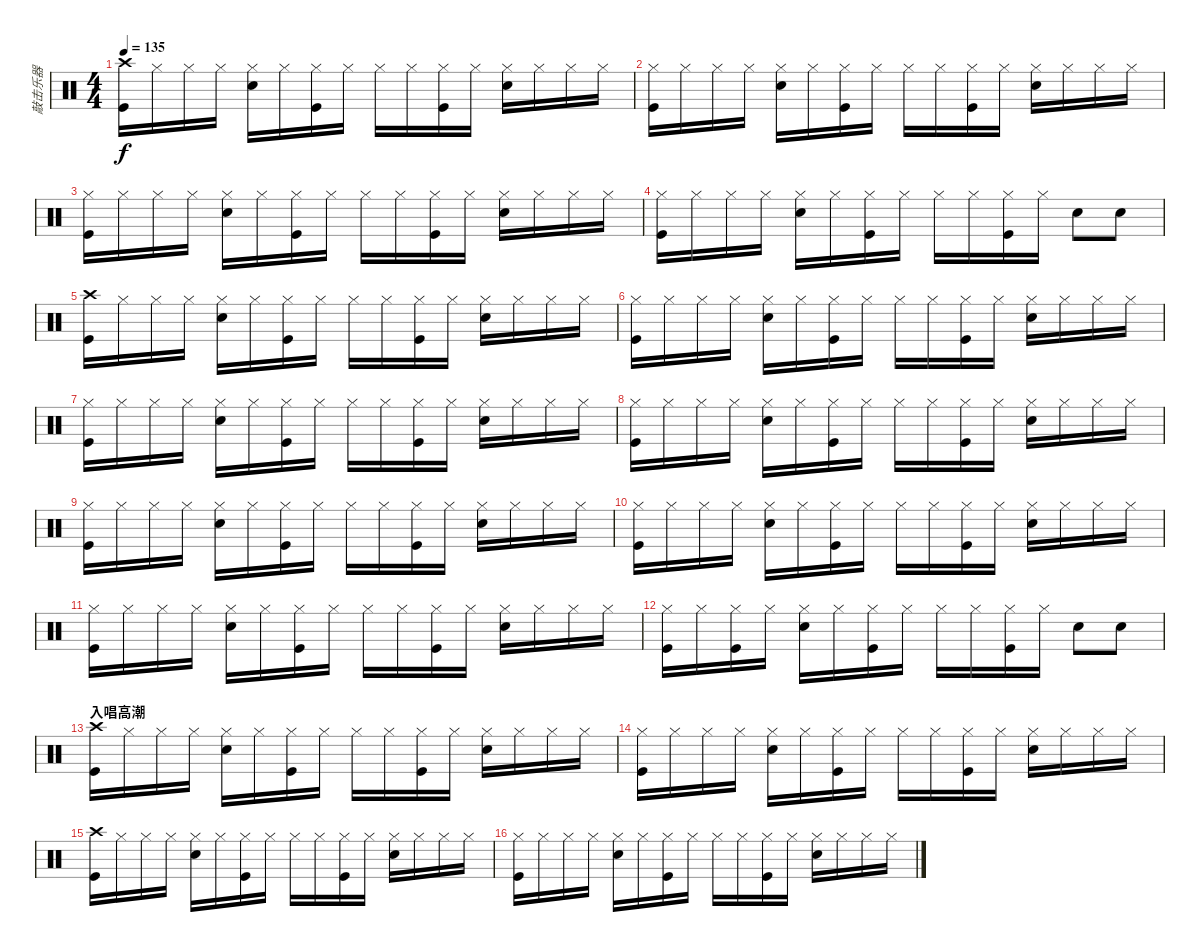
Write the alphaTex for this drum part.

\track ("敲击乐器" "敲击乐器") {instrument percussion}
\staff {score}
\articulation defaults
\ts (4 4)
\tempo 135
\clef neutral
\ks c
("Crash high (hit)" "Kick (hit)").16{dy f} "Hi-Hat (closed)".16 "Hi-Hat (closed)".16 "Hi-Hat (closed)".16 ("Hi-Hat (closed)" "Snare (hit) 2").16 "Hi-Hat (closed)".16 ("Hi-Hat (closed)" "Kick (hit)").16 "Hi-Hat (closed)".16 "Hi-Hat (closed)".16 "Hi-Hat (closed)".16 ("Hi-Hat (closed)" "Kick (hit)").16 "Hi-Hat (closed)".16 ("Hi-Hat (closed)" "Snare (hit) 2").16 "Hi-Hat (closed)".16 "Hi-Hat (closed)".16 "Hi-Hat (closed)".16 |
("Hi-Hat (closed)" "Kick (hit)").16 "Hi-Hat (closed)".16 "Hi-Hat (closed)".16 "Hi-Hat (closed)".16 ("Hi-Hat (closed)" "Snare (hit) 2").16 "Hi-Hat (closed)".16 ("Hi-Hat (closed)" "Kick (hit)").16 "Hi-Hat (closed)".16 "Hi-Hat (closed)".16 "Hi-Hat (closed)".16 ("Hi-Hat (closed)" "Kick (hit)").16 "Hi-Hat (closed)".16 ("Hi-Hat (closed)" "Snare (hit) 2").16 "Hi-Hat (closed)".16 "Hi-Hat (closed)".16 "Hi-Hat (closed)".16 |
("Hi-Hat (closed)" "Kick (hit)").16 "Hi-Hat (closed)".16 "Hi-Hat (closed)".16 "Hi-Hat (closed)".16 ("Hi-Hat (closed)" "Snare (hit) 2").16 "Hi-Hat (closed)".16 ("Hi-Hat (closed)" "Kick (hit)").16 "Hi-Hat (closed)".16 "Hi-Hat (closed)".16 "Hi-Hat (closed)".16 ("Hi-Hat (closed)" "Kick (hit)").16 "Hi-Hat (closed)".16 ("Hi-Hat (closed)" "Snare (hit) 2").16 "Hi-Hat (closed)".16 "Hi-Hat (closed)".16 "Hi-Hat (closed)".16 |
("Hi-Hat (closed)" "Kick (hit)").16 "Hi-Hat (closed)".16 "Hi-Hat (closed)".16 "Hi-Hat (closed)".16 ("Hi-Hat (closed)" "Snare (hit) 2").16 "Hi-Hat (closed)".16 ("Hi-Hat (closed)" "Kick (hit)").16 "Hi-Hat (closed)".16 "Hi-Hat (closed)".16 "Hi-Hat (closed)".16 ("Hi-Hat (closed)" "Kick (hit)").16 "Hi-Hat (closed)".16 "Snare (hit) 2".8 "Snare (hit) 2".8 |
("Crash high (hit)" "Kick (hit)").16 "Hi-Hat (closed)".16 "Hi-Hat (closed)".16 "Hi-Hat (closed)".16 ("Hi-Hat (closed)" "Snare (hit) 2").16 "Hi-Hat (closed)".16 ("Hi-Hat (closed)" "Kick (hit)").16 "Hi-Hat (closed)".16 "Hi-Hat (closed)".16 "Hi-Hat (closed)".16 ("Hi-Hat (closed)" "Kick (hit)").16 "Hi-Hat (closed)".16 ("Hi-Hat (closed)" "Snare (hit) 2").16 "Hi-Hat (closed)".16 "Hi-Hat (closed)".16 "Hi-Hat (closed)".16 |
("Hi-Hat (closed)" "Kick (hit)").16 "Hi-Hat (closed)".16 "Hi-Hat (closed)".16 "Hi-Hat (closed)".16 ("Hi-Hat (closed)" "Snare (hit) 2").16 "Hi-Hat (closed)".16 ("Hi-Hat (closed)" "Kick (hit)").16 "Hi-Hat (closed)".16 "Hi-Hat (closed)".16 "Hi-Hat (closed)".16 ("Hi-Hat (closed)" "Kick (hit)").16 "Hi-Hat (closed)".16 ("Hi-Hat (closed)" "Snare (hit) 2").16 "Hi-Hat (closed)".16 "Hi-Hat (closed)".16 "Hi-Hat (closed)".16 |
("Hi-Hat (closed)" "Kick (hit)").16 "Hi-Hat (closed)".16 "Hi-Hat (closed)".16 "Hi-Hat (closed)".16 ("Hi-Hat (closed)" "Snare (hit) 2").16 "Hi-Hat (closed)".16 ("Hi-Hat (closed)" "Kick (hit)").16 "Hi-Hat (closed)".16 "Hi-Hat (closed)".16 "Hi-Hat (closed)".16 ("Hi-Hat (closed)" "Kick (hit)").16 "Hi-Hat (closed)".16 ("Hi-Hat (closed)" "Snare (hit) 2").16 "Hi-Hat (closed)".16 "Hi-Hat (closed)".16 "Hi-Hat (closed)".16 |
("Hi-Hat (closed)" "Kick (hit)").16 "Hi-Hat (closed)".16 "Hi-Hat (closed)".16 "Hi-Hat (closed)".16 ("Hi-Hat (closed)" "Snare (hit) 2").16 "Hi-Hat (closed)".16 ("Hi-Hat (closed)" "Kick (hit)").16 "Hi-Hat (closed)".16 "Hi-Hat (closed)".16 "Hi-Hat (closed)".16 ("Hi-Hat (closed)" "Kick (hit)").16 "Hi-Hat (closed)".16 ("Hi-Hat (closed)" "Snare (hit) 2").16 "Hi-Hat (closed)".16 "Hi-Hat (closed)".16 "Hi-Hat (closed)".16 |
("Hi-Hat (closed)" "Kick (hit)").16 "Hi-Hat (closed)".16 "Hi-Hat (closed)".16 "Hi-Hat (closed)".16 ("Hi-Hat (closed)" "Snare (hit) 2").16 "Hi-Hat (closed)".16 ("Hi-Hat (closed)" "Kick (hit)").16 "Hi-Hat (closed)".16 "Hi-Hat (closed)".16 "Hi-Hat (closed)".16 ("Hi-Hat (closed)" "Kick (hit)").16 "Hi-Hat (closed)".16 ("Hi-Hat (closed)" "Snare (hit) 2").16 "Hi-Hat (closed)".16 "Hi-Hat (closed)".16 "Hi-Hat (closed)".16 |
("Hi-Hat (closed)" "Kick (hit)").16 "Hi-Hat (closed)".16 "Hi-Hat (closed)".16 "Hi-Hat (closed)".16 ("Hi-Hat (closed)" "Snare (hit) 2").16 "Hi-Hat (closed)".16 ("Hi-Hat (closed)" "Kick (hit)").16 "Hi-Hat (closed)".16 "Hi-Hat (closed)".16 "Hi-Hat (closed)".16 ("Hi-Hat (closed)" "Kick (hit)").16 "Hi-Hat (closed)".16 ("Hi-Hat (closed)" "Snare (hit) 2").16 "Hi-Hat (closed)".16 "Hi-Hat (closed)".16 "Hi-Hat (closed)".16 |
("Hi-Hat (closed)" "Kick (hit)").16 "Hi-Hat (closed)".16 "Hi-Hat (closed)".16 "Hi-Hat (closed)".16 ("Hi-Hat (closed)" "Snare (hit) 2").16 "Hi-Hat (closed)".16 ("Hi-Hat (closed)" "Kick (hit)").16 "Hi-Hat (closed)".16 "Hi-Hat (closed)".16 "Hi-Hat (closed)".16 ("Hi-Hat (closed)" "Kick (hit)").16 "Hi-Hat (closed)".16 ("Hi-Hat (closed)" "Snare (hit) 2").16 "Hi-Hat (closed)".16 "Hi-Hat (closed)".16 "Hi-Hat (closed)".16 |
("Hi-Hat (closed)" "Kick (hit)").16 "Hi-Hat (closed)".16 ("Hi-Hat (closed)" "Kick (hit)").16 "Hi-Hat (closed)".16 ("Hi-Hat (closed)" "Snare (hit) 2").16 "Hi-Hat (closed)".16 ("Hi-Hat (closed)" "Kick (hit)").16 "Hi-Hat (closed)".16 "Hi-Hat (closed)".16 "Hi-Hat (closed)".16 ("Hi-Hat (closed)" "Kick (hit)").16 "Hi-Hat (closed)".16 "Snare (hit) 2".8 "Snare (hit) 2".8 |
\section ("" "入唱高潮")
("Crash high (hit)" "Kick (hit)").16 "Hi-Hat (closed)".16 "Hi-Hat (closed)".16 "Hi-Hat (closed)".16 ("Hi-Hat (closed)" "Snare (hit) 2").16 "Hi-Hat (closed)".16 ("Hi-Hat (closed)" "Kick (hit)").16 "Hi-Hat (closed)".16 "Hi-Hat (closed)".16 "Hi-Hat (closed)".16 ("Hi-Hat (closed)" "Kick (hit)").16 "Hi-Hat (closed)".16 ("Hi-Hat (closed)" "Snare (hit) 2").16 "Hi-Hat (closed)".16 "Hi-Hat (closed)".16 "Hi-Hat (closed)".16 |
("Hi-Hat (closed)" "Kick (hit)").16 "Hi-Hat (closed)".16 "Hi-Hat (closed)".16 "Hi-Hat (closed)".16 ("Hi-Hat (closed)" "Snare (hit) 2").16 "Hi-Hat (closed)".16 ("Hi-Hat (closed)" "Kick (hit)").16 "Hi-Hat (closed)".16 "Hi-Hat (closed)".16 "Hi-Hat (closed)".16 ("Hi-Hat (closed)" "Kick (hit)").16 "Hi-Hat (closed)".16 ("Hi-Hat (closed)" "Snare (hit) 2").16 "Hi-Hat (closed)".16 "Hi-Hat (closed)".16 "Hi-Hat (closed)".16 |
("Crash high (hit)" "Kick (hit)").16 "Hi-Hat (closed)".16 "Hi-Hat (closed)".16 "Hi-Hat (closed)".16 ("Hi-Hat (closed)" "Snare (hit) 2").16 "Hi-Hat (closed)".16 ("Hi-Hat (closed)" "Kick (hit)").16 "Hi-Hat (closed)".16 "Hi-Hat (closed)".16 "Hi-Hat (closed)".16 ("Hi-Hat (closed)" "Kick (hit)").16 "Hi-Hat (closed)".16 ("Hi-Hat (closed)" "Snare (hit) 2").16 "Hi-Hat (closed)".16 "Hi-Hat (closed)".16 "Hi-Hat (closed)".16 |
("Hi-Hat (closed)" "Kick (hit)").16 "Hi-Hat (closed)".16 "Hi-Hat (closed)".16 "Hi-Hat (closed)".16 ("Hi-Hat (closed)" "Snare (hit) 2").16 "Hi-Hat (closed)".16 ("Hi-Hat (closed)" "Kick (hit)").16 "Hi-Hat (closed)".16 "Hi-Hat (closed)".16 "Hi-Hat (closed)".16 ("Hi-Hat (closed)" "Kick (hit)").16 "Hi-Hat (closed)".16 ("Hi-Hat (closed)" "Snare (hit) 2").16 "Hi-Hat (closed)".16 "Hi-Hat (closed)".16 "Hi-Hat (closed)".16
